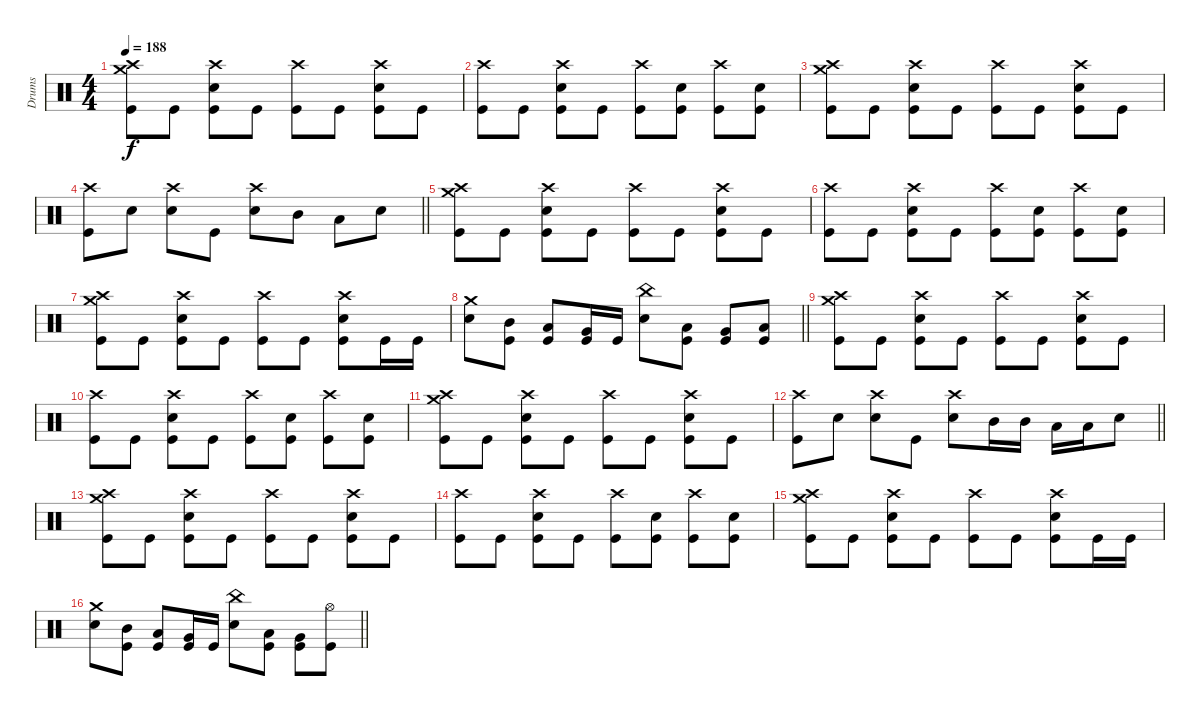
\track ("Drums" "Drums") {instrument percussion}
\staff
\articulation defaults
\ts (4 4)
\section ("" "")
\tempo 188
\clef neutral
\ks c
("Crash high (hit)" "Crash medium (hit)" "Kick (hit)").8{dy f} "Kick (hit)".8 ("Crash high (hit)" "Electric Snare (hit)" "Kick (hit)").8 "Kick (hit)".8 ("Crash high (hit)" "Kick (hit)").8 "Kick (hit)".8 ("Crash high (hit)" "Electric Snare (hit)" "Kick (hit)").8 "Kick (hit)".8 |
("Crash high (hit)" "Kick (hit)").8 "Kick (hit)".8 ("Crash high (hit)" "Electric Snare (hit)" "Kick (hit)").8 "Kick (hit)".8 ("Crash high (hit)" "Kick (hit)").8 ("Electric Snare (hit)" "Kick (hit)").8 ("Crash high (hit)" "Kick (hit)").8 ("Electric Snare (hit)" "Kick (hit)").8 |
("Crash high (hit)" "Crash medium (hit)" "Kick (hit)").8 "Kick (hit)".8 ("Crash high (hit)" "Electric Snare (hit)" "Kick (hit)").8 "Kick (hit)".8 ("Crash high (hit)" "Kick (hit)").8 "Kick (hit)".8 ("Crash high (hit)" "Electric Snare (hit)" "Kick (hit)").8 "Kick (hit)".8 |
\barLineRight lightlight
("Crash high (hit)" "Kick (hit)").8 "Electric Snare (hit)".8 ("Crash high (hit)" "Electric Snare (hit)").8 "Kick (hit)".8 ("Crash high (hit)" "Electric Snare (hit)").8 "Mid Tom (hit)".8 "Low Tom (hit)".8 "Electric Snare (hit)".8 |
("Crash high (hit)" "Crash medium (hit)" "Kick (hit)").8 "Kick (hit)".8 ("Crash high (hit)" "Electric Snare (hit)" "Kick (hit)").8 "Kick (hit)".8 ("Crash high (hit)" "Kick (hit)").8 "Kick (hit)".8 ("Crash high (hit)" "Electric Snare (hit)" "Kick (hit)").8 "Kick (hit)".8 |
("Crash high (hit)" "Kick (hit)").8 "Kick (hit)".8 ("Crash high (hit)" "Electric Snare (hit)" "Kick (hit)").8 "Kick (hit)".8 ("Crash high (hit)" "Kick (hit)").8 ("Electric Snare (hit)" "Kick (hit)").8 ("Crash high (hit)" "Kick (hit)").8 ("Electric Snare (hit)" "Kick (hit)").8 |
("Crash high (hit)" "Crash medium (hit)" "Kick (hit)").8 "Kick (hit)".8 ("Crash high (hit)" "Electric Snare (hit)" "Kick (hit)").8 "Kick (hit)".8 ("Crash high (hit)" "Kick (hit)").8 "Kick (hit)".8 ("Crash high (hit)" "Electric Snare (hit)" "Kick (hit)").8 "Kick (hit)".16 "Kick (hit)".16 |
\barLineRight lightlight
("Crash medium (hit)" "Electric Snare (hit)").8 ("Mid Tom (hit)" "Kick (hit)").8 ("Low Tom (hit)" "Kick (hit)").8 ("Very Low Tom (hit)" "Kick (hit)").16 "Kick (hit)".16 ("China (hit)" "Electric Snare (hit)").8 ("Low Tom (hit)" "Kick (hit)").8 ("Very Low Tom (hit)" "Kick (hit)").8 ("Low Floor Tom (hit)" "Kick (hit)").8 |
("Crash high (hit)" "Crash medium (hit)" "Kick (hit)").8 "Kick (hit)".8 ("Crash high (hit)" "Electric Snare (hit)" "Kick (hit)").8 "Kick (hit)".8 ("Crash high (hit)" "Kick (hit)").8 "Kick (hit)".8 ("Crash high (hit)" "Electric Snare (hit)" "Kick (hit)").8 "Kick (hit)".8 |
("Crash high (hit)" "Kick (hit)").8 "Kick (hit)".8 ("Crash high (hit)" "Electric Snare (hit)" "Kick (hit)").8 "Kick (hit)".8 ("Crash high (hit)" "Kick (hit)").8 ("Electric Snare (hit)" "Kick (hit)").8 ("Crash high (hit)" "Kick (hit)").8 ("Electric Snare (hit)" "Kick (hit)").8 |
("Crash high (hit)" "Crash medium (hit)" "Kick (hit)").8 "Kick (hit)".8 ("Crash high (hit)" "Electric Snare (hit)" "Kick (hit)").8 "Kick (hit)".8 ("Crash high (hit)" "Kick (hit)").8 "Kick (hit)".8 ("Crash high (hit)" "Electric Snare (hit)" "Kick (hit)").8 "Kick (hit)".8 |
\barLineRight lightlight
("Crash high (hit)" "Kick (hit)").8 "Electric Snare (hit)".8 ("Crash high (hit)" "Electric Snare (hit)").8 "Kick (hit)".8 ("Crash high (hit)" "Electric Snare (hit)").8 "Mid Tom (hit)".16 "Mid Tom (hit)".16 "Low Tom (hit)".16 "Low Tom (hit)".16 "Electric Snare (hit)".8 |
("Crash high (hit)" "Crash medium (hit)" "Kick (hit)").8 "Kick (hit)".8 ("Crash high (hit)" "Electric Snare (hit)" "Kick (hit)").8 "Kick (hit)".8 ("Crash high (hit)" "Kick (hit)").8 "Kick (hit)".8 ("Crash high (hit)" "Electric Snare (hit)" "Kick (hit)").8 "Kick (hit)".8 |
("Crash high (hit)" "Kick (hit)").8 "Kick (hit)".8 ("Crash high (hit)" "Electric Snare (hit)" "Kick (hit)").8 "Kick (hit)".8 ("Crash high (hit)" "Kick (hit)").8 ("Electric Snare (hit)" "Kick (hit)").8 ("Crash high (hit)" "Kick (hit)").8 ("Electric Snare (hit)" "Kick (hit)").8 |
("Crash high (hit)" "Crash medium (hit)" "Kick (hit)").8 "Kick (hit)".8 ("Crash high (hit)" "Electric Snare (hit)" "Kick (hit)").8 "Kick (hit)".8 ("Crash high (hit)" "Kick (hit)").8 "Kick (hit)".8 ("Crash high (hit)" "Electric Snare (hit)" "Kick (hit)").8 "Kick (hit)".16 "Kick (hit)".16 |
\barLineRight lightlight
("Crash medium (hit)" "Electric Snare (hit)").8 ("Mid Tom (hit)" "Kick (hit)").8 ("Low Tom (hit)" "Kick (hit)").8 ("Very Low Tom (hit)" "Kick (hit)").16 "Kick (hit)".16 ("China (hit)" "Electric Snare (hit)").8 ("Low Tom (hit)" "Kick (hit)").8 ("Very Low Tom (hit)" "Kick (hit)").8 ("Hi-Hat (open)" "Kick (hit)").8
